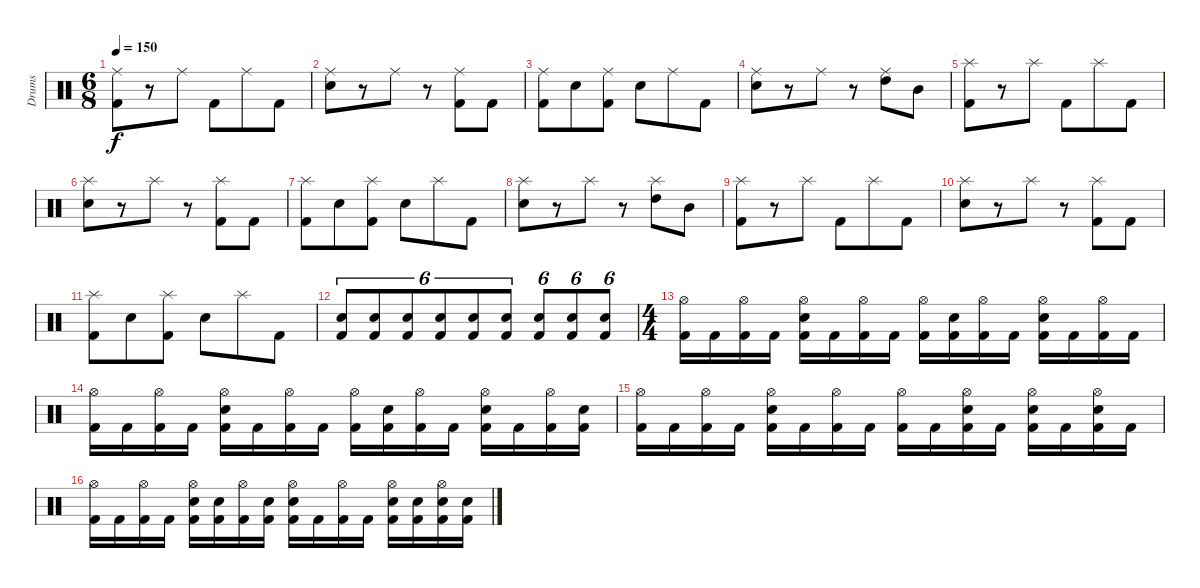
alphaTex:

\track ("Drums" "Drums") {instrument percussion}
\staff {score}
\articulation defaults
\ts (6 8)
\tempo 150
\clef neutral
\ks c
("Ride (middle)" "Kick (hit) 2").8{dy f} r.8 "Ride (middle)".8 "Kick (hit) 2".8 "Ride (middle)".8 "Kick (hit) 2".8 |
("Ride (middle)" "Electric Snare (hit)").8 r.8 "Ride (middle)".8 r.8 ("Ride (middle)" "Kick (hit) 2").8 "Kick (hit) 2".8 |
("Ride (middle)" "Kick (hit) 2").8 "Electric Snare (hit)".8 ("Ride (middle)" "Kick (hit) 2").8 "Electric Snare (hit)".8 "Ride (middle)".8 "Kick (hit) 2".8 |
("Ride (middle)" "Electric Snare (hit)").8 r.8 "Ride (middle)".8 r.8 ("Ride (middle)" "High Tom (hit)").8 "Mid Tom (hit)".8 |
("Splash (hit)" "Kick (hit) 2").8 r.8 "Splash (hit)".8 "Kick (hit) 2".8 "Splash (hit)".8 "Kick (hit) 2".8 |
("Splash (hit)" "Electric Snare (hit)").8 r.8 "Splash (hit)".8 r.8 ("Splash (hit)" "Kick (hit) 2").8 "Kick (hit) 2".8 |
("Splash (hit)" "Kick (hit) 2").8 "Electric Snare (hit)".8 ("Splash (hit)" "Kick (hit) 2").8 "Electric Snare (hit)".8 "Splash (hit)".8 "Kick (hit) 2".8 |
("Splash (hit)" "Electric Snare (hit)").8 r.8 "Splash (hit)".8 r.8 ("Splash (hit)" "High Tom (hit)").8 "Mid Tom (hit)".8 |
("Splash (hit)" "Kick (hit) 2").8 r.8 "Splash (hit)".8 "Kick (hit) 2".8 "Splash (hit)".8 "Kick (hit) 2".8 |
("Splash (hit)" "Electric Snare (hit)").8 r.8 "Splash (hit)".8 r.8 ("Splash (hit)" "Kick (hit) 2").8 "Kick (hit) 2".8 |
("Splash (hit)" "Kick (hit) 2").8 "Electric Snare (hit)".8 ("Splash (hit)" "Kick (hit) 2").8 "Electric Snare (hit)".8 "Splash (hit)".8 "Kick (hit) 2".8 |
("Kick (hit) 2" "Electric Snare (hit)").8{tu (6 4)} ("Kick (hit) 2" "Electric Snare (hit)").8{tu (6 4)} ("Kick (hit) 2" "Electric Snare (hit)").8{tu (6 4)} ("Kick (hit) 2" "Electric Snare (hit)").8{tu (6 4)} ("Kick (hit) 2" "Electric Snare (hit)").8{tu (6 4)} ("Kick (hit) 2" "Electric Snare (hit)").8{tu (6 4)} ("Kick (hit) 2" "Electric Snare (hit)").8{tu (6 4)} ("Kick (hit) 2" "Electric Snare (hit)").8{tu (6 4)} ("Kick (hit) 2" "Electric Snare (hit)").8{tu (6 4)} |
\ts (4 4)
("Hi-Hat (open)" "Kick (hit) 2").16 "Kick (hit) 2".16 ("Hi-Hat (open)" "Kick (hit) 2").16 "Kick (hit) 2".16 ("Hi-Hat (open)" "Electric Snare (hit)" "Kick (hit) 2").16 "Kick (hit) 2".16 ("Hi-Hat (open)" "Kick (hit) 2").16 "Kick (hit) 2".16 ("Hi-Hat (open)" "Kick (hit) 2").16 ("Electric Snare (hit)" "Kick (hit) 2").16 ("Hi-Hat (open)" "Kick (hit) 2").16 "Kick (hit) 2".16 ("Hi-Hat (open)" "Electric Snare (hit)" "Kick (hit) 2").16 "Kick (hit) 2".16 ("Hi-Hat (open)" "Kick (hit) 2").16 "Kick (hit) 2".16 |
("Hi-Hat (open)" "Kick (hit) 2").16 "Kick (hit) 2".16 ("Hi-Hat (open)" "Kick (hit) 2").16 "Kick (hit) 2".16 ("Hi-Hat (open)" "Electric Snare (hit)" "Kick (hit) 2").16 "Kick (hit) 2".16 ("Hi-Hat (open)" "Kick (hit) 2").16 "Kick (hit) 2".16 ("Hi-Hat (open)" "Kick (hit) 2").16 ("Electric Snare (hit)" "Kick (hit) 2").16 ("Hi-Hat (open)" "Kick (hit) 2").16 "Kick (hit) 2".16 ("Hi-Hat (open)" "Electric Snare (hit)" "Kick (hit) 2").16 "Kick (hit) 2".16 ("Hi-Hat (open)" "Kick (hit) 2").16 ("Electric Snare (hit)" "Kick (hit) 2").16 |
("Hi-Hat (open)" "Kick (hit) 2").16 "Kick (hit) 2".16 ("Hi-Hat (open)" "Kick (hit) 2").16 "Kick (hit) 2".16 ("Hi-Hat (open)" "Electric Snare (hit)" "Kick (hit) 2").16 "Kick (hit) 2".16 ("Hi-Hat (open)" "Kick (hit) 2").16 "Kick (hit) 2".16 ("Hi-Hat (open)" "Kick (hit) 2").16 "Kick (hit) 2".16 ("Hi-Hat (open)" "Electric Snare (hit)" "Kick (hit) 2").16 "Kick (hit) 2".16 ("Hi-Hat (open)" "Electric Snare (hit)" "Kick (hit) 2").16 "Kick (hit) 2".16 ("Hi-Hat (open)" "Electric Snare (hit)" "Kick (hit) 2").16 "Kick (hit) 2".16 |
("Hi-Hat (open)" "Kick (hit) 2").16 "Kick (hit) 2".16 ("Hi-Hat (open)" "Kick (hit) 2").16 "Kick (hit) 2".16 ("Hi-Hat (open)" "Electric Snare (hit)" "Kick (hit) 2").16 ("Electric Snare (hit)" "Kick (hit) 2").16 ("Hi-Hat (open)" "Kick (hit) 2").16 ("Electric Snare (hit)" "Kick (hit) 2").16 ("Hi-Hat (open)" "Electric Snare (hit)" "Kick (hit) 2").16 "Kick (hit) 2".16 ("Hi-Hat (open)" "Kick (hit) 2").16 "Kick (hit) 2".16 ("Hi-Hat (open)" "Electric Snare (hit)" "Kick (hit) 2").16 ("Electric Snare (hit)" "Kick (hit) 2").16 ("Hi-Hat (open)" "Electric Snare (hit)" "Kick (hit) 2").16 ("Electric Snare (hit)" "Kick (hit) 2").16
